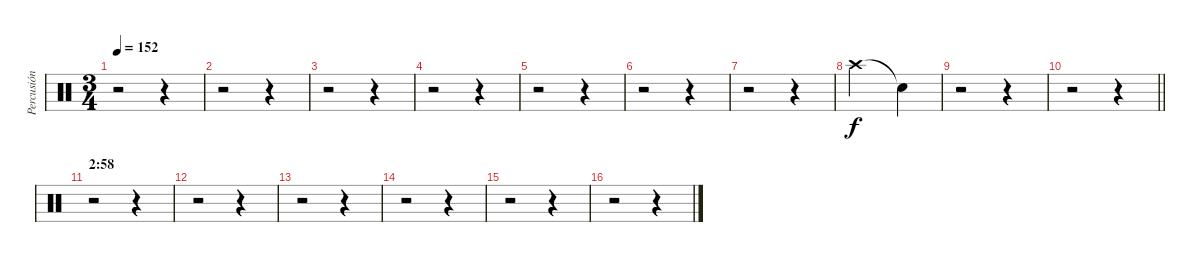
\track ("Percusión" "Percusión") {instrument percussion}
\staff {score}
\articulation defaults
\ts (3 4)
\tempo 152
\clef neutral
\ks c
r.2{dy f} r.4 |
r.2 r.4 |
r.2 r.4 |
r.2 r.4 |
r.2 r.4 |
r.2 r.4 |
r.2 r.4 |
"Crash high (hit)".2 "Snare (hit)"{t}.4 |
r.2 r.4 |
\barLineRight lightlight
r.2 r.4 |
\section ("" "2:58")
r.2 r.4 |
r.2 r.4 |
r.2 r.4 |
r.2 r.4 |
r.2 r.4 |
r.2 r.4
